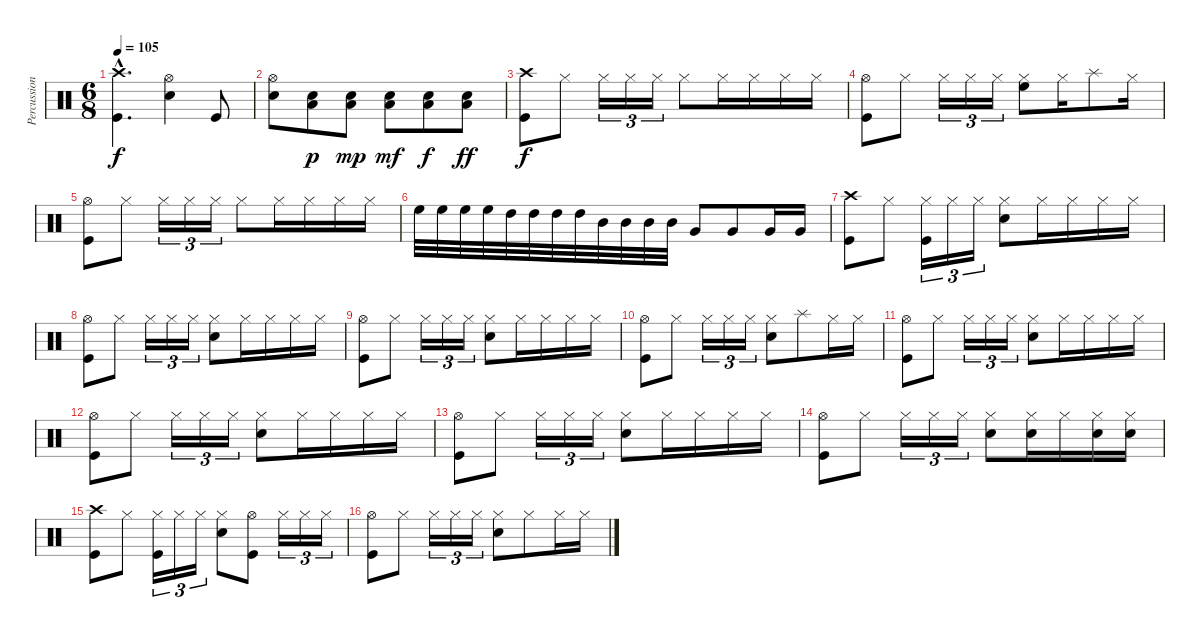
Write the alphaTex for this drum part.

\track ("Percussion" "Percussion") {instrument percussion}
\staff {score}
\articulation defaults
\ts (6 8)
\tempo 105
\clef neutral
\ks c
("Crash high (hit)"{hac} "Kick (hit)"{hac}).4{d dy f} ("Hi-Hat (open)" "Electric Snare (hit)").4 "Kick (hit)".8 |
("Hi-Hat (open)" "Electric Snare (hit)").8 ("Low Floor Tom (hit)" "Electric Snare (hit)").8{dy p} ("Low Floor Tom (hit)" "Electric Snare (hit)").8{dy mp} ("Low Floor Tom (hit)" "Electric Snare (hit)").8{dy mf} ("Low Floor Tom (hit)" "Electric Snare (hit)").8{dy f} ("Low Floor Tom (hit)" "Electric Snare (hit)").8{dy ff} |
("Crash high (hit)" "Kick (hit)").8{dy f} "Hi-Hat (closed)".8 "Hi-Hat (closed)".16{tu (3 2)} "Hi-Hat (closed)".16{tu (3 2)} "Hi-Hat (closed)".16{tu (3 2)} "Hi-Hat (closed)".8 "Hi-Hat (closed)".16 "Hi-Hat (closed)".16 "Hi-Hat (closed)".16 "Hi-Hat (closed)".16 |
("Hi-Hat (open)" "Kick (hit)").8 "Hi-Hat (closed)".8 "Hi-Hat (closed)".16{tu (3 2)} "Hi-Hat (closed)".16{tu (3 2)} "Hi-Hat (closed)".16{tu (3 2)} ("Hi-Hat (closed)" "High Floor Tom (hit)").8 "Hi-Hat (closed)".16 "Splash (hit)".8 "Hi-Hat (closed)".16 |
("Hi-Hat (open)" "Kick (hit)").8 "Hi-Hat (closed)".8 "Hi-Hat (closed)".16{tu (3 2)} "Hi-Hat (closed)".16{tu (3 2)} "Hi-Hat (closed)".16{tu (3 2)} "Hi-Hat (closed)".8 "Hi-Hat (closed)".16 "Hi-Hat (closed)".16 "Hi-Hat (closed)".16 "Hi-Hat (closed)".16 |
"High Floor Tom (hit)".32 "High Floor Tom (hit)".32 "High Floor Tom (hit)".32 "High Floor Tom (hit)".32 "High Tom (hit)".32 "High Tom (hit)".32 "High Tom (hit)".32 "High Tom (hit)".32 "Mid Tom (hit)".32 "Mid Tom (hit)".32 "Mid Tom (hit)".32 "Mid Tom (hit)".32 "Very Low Tom (hit)".8 "Very Low Tom (hit)".8 "Very Low Tom (hit)".16 "Very Low Tom (hit)".16 |
("Crash high (hit)" "Kick (hit)").8 "Hi-Hat (closed)".8 ("Hi-Hat (closed)" "Kick (hit)").16{tu (3 2)} "Hi-Hat (closed)".16{tu (3 2)} "Hi-Hat (closed)".16{tu (3 2)} ("Hi-Hat (closed)" "Electric Snare (hit)").8 "Hi-Hat (closed)".16 "Hi-Hat (closed)".16 "Hi-Hat (closed)".16 "Hi-Hat (closed)".16 |
("Hi-Hat (open)" "Kick (hit)").8 "Hi-Hat (closed)".8 "Hi-Hat (closed)".16{tu (3 2)} "Hi-Hat (closed)".16{tu (3 2)} "Hi-Hat (closed)".16{tu (3 2)} ("Hi-Hat (closed)" "Electric Snare (hit)").8 "Hi-Hat (closed)".16 "Hi-Hat (closed)".16 "Hi-Hat (closed)".16 "Hi-Hat (closed)".16 |
("Hi-Hat (open)" "Kick (hit)").8 "Hi-Hat (closed)".8 "Hi-Hat (closed)".16{tu (3 2)} "Hi-Hat (closed)".16{tu (3 2)} "Hi-Hat (closed)".16{tu (3 2)} ("Hi-Hat (closed)" "Electric Snare (hit)").8 "Hi-Hat (closed)".16 "Hi-Hat (closed)".16 "Hi-Hat (closed)".16 "Hi-Hat (closed)".16 |
("Hi-Hat (open)" "Kick (hit)").8 "Hi-Hat (closed)".8 "Hi-Hat (closed)".16{tu (3 2)} "Hi-Hat (closed)".16{tu (3 2)} "Hi-Hat (closed)".16{tu (3 2)} ("Hi-Hat (closed)" "Electric Snare (hit)").8 "Splash (hit)".8 "Hi-Hat (closed)".16 "Hi-Hat (closed)".16 |
("Hi-Hat (open)" "Kick (hit)").8 "Hi-Hat (closed)".8 "Hi-Hat (closed)".16{tu (3 2)} "Hi-Hat (closed)".16{tu (3 2)} "Hi-Hat (closed)".16{tu (3 2)} ("Hi-Hat (closed)" "Electric Snare (hit)").8 "Hi-Hat (closed)".16 "Hi-Hat (closed)".16 "Hi-Hat (closed)".16 "Hi-Hat (closed)".16 |
("Hi-Hat (open)" "Kick (hit)").8 "Hi-Hat (closed)".8 "Hi-Hat (closed)".16{tu (3 2)} "Hi-Hat (closed)".16{tu (3 2)} "Hi-Hat (closed)".16{tu (3 2)} ("Hi-Hat (closed)" "Electric Snare (hit)").8 "Hi-Hat (closed)".16 "Hi-Hat (closed)".16 "Hi-Hat (closed)".16 "Hi-Hat (closed)".16 |
("Hi-Hat (open)" "Kick (hit)").8 "Hi-Hat (closed)".8 "Hi-Hat (closed)".16{tu (3 2)} "Hi-Hat (closed)".16{tu (3 2)} "Hi-Hat (closed)".16{tu (3 2)} ("Hi-Hat (closed)" "Electric Snare (hit)").8 "Hi-Hat (closed)".16 "Hi-Hat (closed)".16 "Hi-Hat (closed)".16 "Hi-Hat (closed)".16 |
("Hi-Hat (open)" "Kick (hit)").8 "Hi-Hat (closed)".8 "Hi-Hat (closed)".16{tu (3 2)} "Hi-Hat (closed)".16{tu (3 2)} "Hi-Hat (closed)".16{tu (3 2)} ("Hi-Hat (closed)" "Electric Snare (hit)").8 ("Hi-Hat (closed)" "Electric Snare (hit)").16 "Hi-Hat (closed)".16 ("Hi-Hat (closed)" "Electric Snare (hit)").16 ("Hi-Hat (closed)" "Electric Snare (hit)").16 |
("Crash high (hit)" "Kick (hit)").8 "Hi-Hat (closed)".8 ("Hi-Hat (closed)" "Kick (hit)").16{tu (3 2)} "Hi-Hat (closed)".16{tu (3 2)} "Hi-Hat (closed)".16{tu (3 2)} ("Hi-Hat (closed)" "Electric Snare (hit)").8 ("Hi-Hat (open)" "Kick (hit)").8 "Hi-Hat (closed)".16{tu (3 2)} "Hi-Hat (closed)".16{tu (3 2)} "Hi-Hat (closed)".16{tu (3 2)} |
("Hi-Hat (open)" "Kick (hit)").8 "Hi-Hat (closed)".8 "Hi-Hat (closed)".16{tu (3 2)} "Hi-Hat (closed)".16{tu (3 2)} "Hi-Hat (closed)".16{tu (3 2)} ("Hi-Hat (closed)" "Electric Snare (hit)").8 "Hi-Hat (closed)".8 "Hi-Hat (closed)".16 "Hi-Hat (closed)".16
